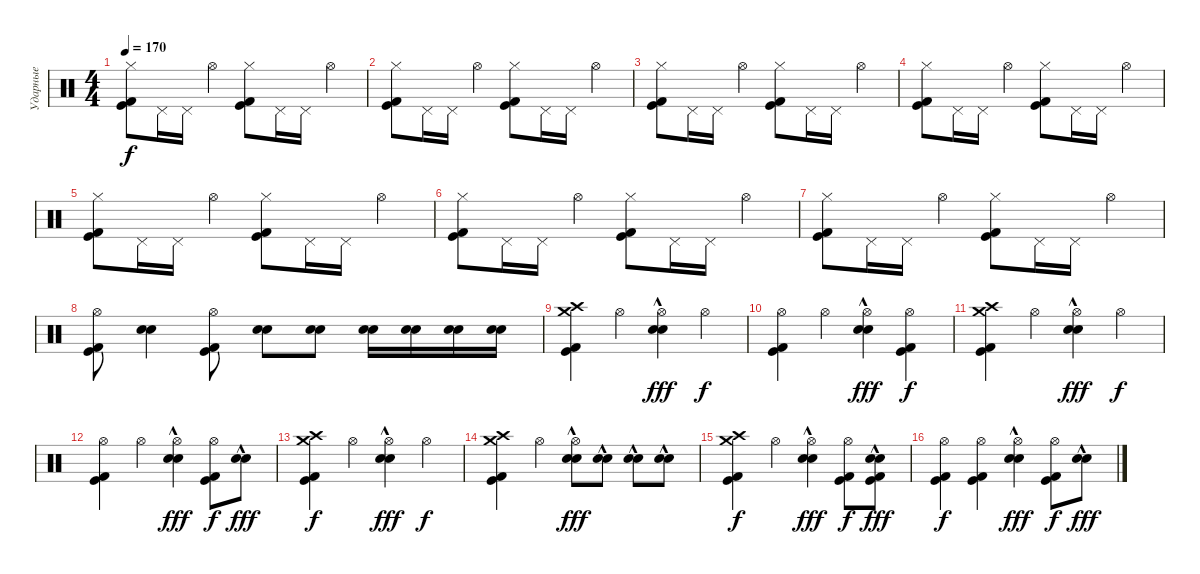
\track ("Ударные" "Ударные") {instrument percussion}
\staff {score}
\articulation defaults
\ts (4 4)
\tempo 170
\clef neutral
\ks c
("Hi-Hat (closed)" "Kick (hit)" "Kick (hit) 2").8{dy f} "Pedal Hi-Hat (hit)".16 "Pedal Hi-Hat (hit)".16 "Hi-Hat (open)".4 ("Hi-Hat (closed)" "Kick (hit)" "Kick (hit) 2").8 "Pedal Hi-Hat (hit)".16 "Pedal Hi-Hat (hit)".16 "Hi-Hat (open)".4 |
("Hi-Hat (closed)" "Kick (hit)" "Kick (hit) 2").8 "Pedal Hi-Hat (hit)".16 "Pedal Hi-Hat (hit)".16 "Hi-Hat (open)".4 ("Hi-Hat (closed)" "Kick (hit)" "Kick (hit) 2").8 "Pedal Hi-Hat (hit)".16 "Pedal Hi-Hat (hit)".16 "Hi-Hat (open)".4 |
("Hi-Hat (closed)" "Kick (hit)" "Kick (hit) 2").8 "Pedal Hi-Hat (hit)".16 "Pedal Hi-Hat (hit)".16 "Hi-Hat (open)".4 ("Hi-Hat (closed)" "Kick (hit)" "Kick (hit) 2").8 "Pedal Hi-Hat (hit)".16 "Pedal Hi-Hat (hit)".16 "Hi-Hat (open)".4 |
("Hi-Hat (closed)" "Kick (hit)" "Kick (hit) 2").8 "Pedal Hi-Hat (hit)".16 "Pedal Hi-Hat (hit)".16 "Hi-Hat (open)".4 ("Hi-Hat (closed)" "Kick (hit)" "Kick (hit) 2").8 "Pedal Hi-Hat (hit)".16 "Pedal Hi-Hat (hit)".16 "Hi-Hat (open)".4 |
("Hi-Hat (closed)" "Kick (hit)" "Kick (hit) 2").8 "Pedal Hi-Hat (hit)".16 "Pedal Hi-Hat (hit)".16 "Hi-Hat (open)".4 ("Hi-Hat (closed)" "Kick (hit)" "Kick (hit) 2").8 "Pedal Hi-Hat (hit)".16 "Pedal Hi-Hat (hit)".16 "Hi-Hat (open)".4 |
("Hi-Hat (closed)" "Kick (hit)" "Kick (hit) 2").8 "Pedal Hi-Hat (hit)".16 "Pedal Hi-Hat (hit)".16 "Hi-Hat (open)".4 ("Hi-Hat (closed)" "Kick (hit)" "Kick (hit) 2").8 "Pedal Hi-Hat (hit)".16 "Pedal Hi-Hat (hit)".16 "Hi-Hat (open)".4 |
("Hi-Hat (closed)" "Kick (hit)" "Kick (hit) 2").8 "Pedal Hi-Hat (hit)".16 "Pedal Hi-Hat (hit)".16 "Hi-Hat (open)".4 ("Hi-Hat (closed)" "Kick (hit)" "Kick (hit) 2").8 "Pedal Hi-Hat (hit)".16 "Pedal Hi-Hat (hit)".16 "Hi-Hat (open)".4 |
("Hi-Hat (open)" "Kick (hit)" "Kick (hit) 2").8 ("Snare (hit) 2" "Electric Snare (hit)").4 ("Hi-Hat (open)" "Kick (hit)" "Kick (hit) 2").8 ("Snare (hit) 2" "Electric Snare (hit)").8 ("Snare (hit) 2" "Electric Snare (hit)").8 ("Snare (hit) 2" "Electric Snare (hit)").16 ("Snare (hit) 2" "Electric Snare (hit)").16 ("Snare (hit) 2" "Electric Snare (hit)").16 ("Snare (hit) 2" "Electric Snare (hit)").16 |
("Crash high (hit)" "Kick (hit)" "Kick (hit) 2" "Crash medium (hit)").4 "Hi-Hat (open)".4 ("Hi-Hat (open)" "Snare (hit) 2"{hac} "Electric Snare (hit)"{hac}).4{dy fff} "Hi-Hat (open)".4{dy f} |
("Hi-Hat (open)" "Kick (hit)" "Kick (hit) 2").4 "Hi-Hat (open)".4 ("Hi-Hat (open)" "Snare (hit) 2"{hac} "Electric Snare (hit)"{hac}).4{dy fff} ("Hi-Hat (open)" "Kick (hit)" "Kick (hit) 2").4{dy f} |
("Crash high (hit)" "Kick (hit)" "Kick (hit) 2" "Crash medium (hit)").4 "Hi-Hat (open)".4 ("Hi-Hat (open)" "Snare (hit) 2"{hac} "Electric Snare (hit)"{hac}).4{dy fff} "Hi-Hat (open)".4{dy f} |
("Hi-Hat (open)" "Kick (hit)" "Kick (hit) 2").4 "Hi-Hat (open)".4 ("Hi-Hat (open)" "Snare (hit) 2"{hac} "Electric Snare (hit)"{hac}).4{dy fff} ("Hi-Hat (open)" "Kick (hit)" "Kick (hit) 2").8{dy f} ("Snare (hit) 2"{hac} "Electric Snare (hit)"{hac}).8{dy fff} |
("Crash high (hit)" "Kick (hit)" "Kick (hit) 2" "Crash medium (hit)").4{dy f} "Hi-Hat (open)".4 ("Hi-Hat (open)" "Snare (hit) 2"{hac} "Electric Snare (hit)"{hac}).4{dy fff} "Hi-Hat (open)".4{dy f} |
("Crash high (hit)" "Kick (hit)" "Kick (hit) 2" "Crash medium (hit)").4 "Hi-Hat (open)".4 ("Hi-Hat (open)" "Snare (hit) 2"{hac} "Electric Snare (hit)"{hac}).8{dy fff} ("Snare (hit) 2"{hac} "Electric Snare (hit)"{hac}).8 ("Snare (hit) 2"{hac} "Electric Snare (hit)"{hac}).8 ("Snare (hit) 2"{hac} "Electric Snare (hit)"{hac}).8 |
("Crash high (hit)" "Kick (hit)" "Kick (hit) 2" "Crash medium (hit)").4{dy f} "Hi-Hat (open)".4 ("Hi-Hat (open)" "Snare (hit) 2"{hac} "Electric Snare (hit)"{hac}).4{dy fff} ("Hi-Hat (open)" "Kick (hit)" "Kick (hit) 2").8{dy f} ("Kick (hit)" "Kick (hit) 2" "Snare (hit) 2"{hac} "Electric Snare (hit)"{hac}).8{dy fff} |
("Hi-Hat (open)" "Kick (hit)" "Kick (hit) 2").4{dy f} ("Hi-Hat (open)" "Kick (hit)" "Kick (hit) 2").4 ("Hi-Hat (open)" "Snare (hit) 2"{hac} "Electric Snare (hit)"{hac}).4{dy fff} ("Hi-Hat (open)" "Kick (hit)" "Kick (hit) 2").8{dy f} ("Snare (hit) 2"{hac} "Electric Snare (hit)"{hac}).8{dy fff}
